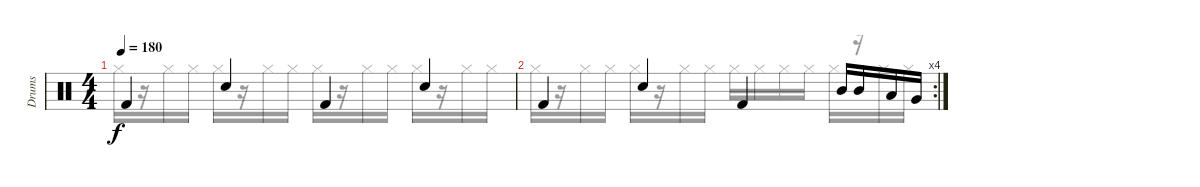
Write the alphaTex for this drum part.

\track ("Drums" "Drums") {instrument percussion}
\staff {score}
\articulation defaults
\voice
\ts (4 4)
\tempo 180
\clef neutral
\ks c "Kick (hit) 2".4{dy f} "Snare (hit) 2".4 "Kick (hit) 2".4 "Snare (hit) 2".4
|
\rc 4 "Kick (hit) 2".4 "Snare (hit) 2".4 "Kick (hit) 2".4 "Mid Tom (hit)".16 "Mid Tom (hit)".16 "Low Tom (hit)".16 "Very Low Tom (hit)".16
\voice
\clef neutral
\ks c "Hi-Hat (closed)".16{dy f}
r.16 "Hi-Hat (closed)".16 "Hi-Hat (closed)".16 "Hi-Hat (closed)".16 r.16 "Hi-Hat (closed)".16 "Hi-Hat (closed)".16 "Hi-Hat (closed)".16 r.16 "Hi-Hat (closed)".16 "Hi-Hat (closed)".16 "Hi-Hat (closed)".16 r.16 "Hi-Hat (closed)".16 "Hi-Hat (closed)".16 |
"Hi-Hat (closed)".16 r.16 "Hi-Hat (closed)".16 "Hi-Hat (closed)".16 "Hi-Hat (closed)".16 r.16 "Hi-Hat (closed)".16 "Hi-Hat (closed)".16 "Hi-Hat (closed)".16 "Hi-Hat (closed)".16 "Hi-Hat (closed)".16 "Hi-Hat (closed)".16 "Hi-Hat (closed)".16 r.16 "Hi-Hat (closed)".16 "Hi-Hat (closed)".16
